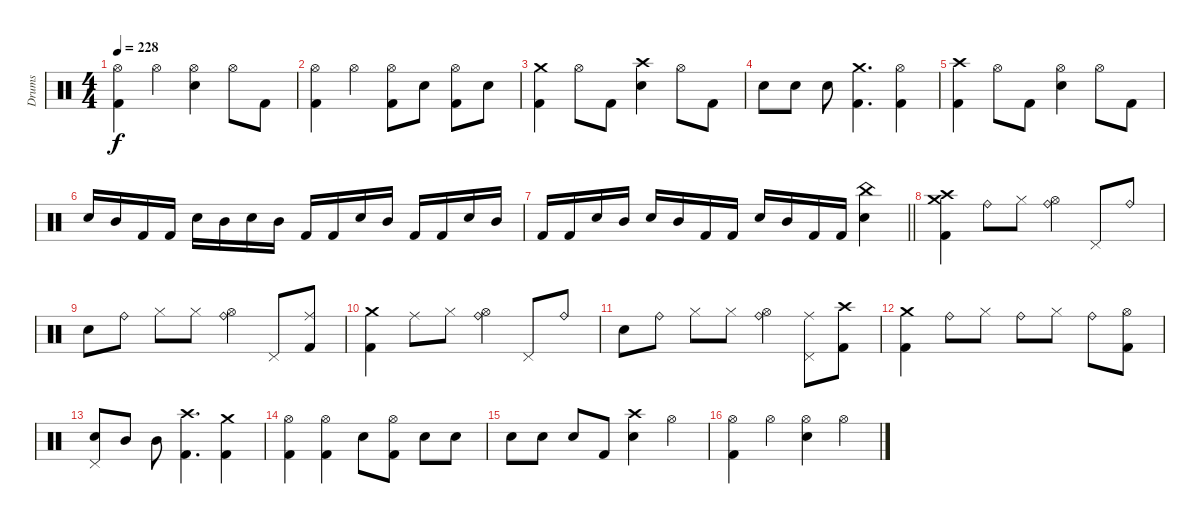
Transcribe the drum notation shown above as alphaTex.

\track ("Drums" "Drums") {instrument percussion}
\staff {score}
\articulation defaults
\ts (4 4)
\tempo 228
\clef neutral
\ks c
("Hi-Hat (open)" "Kick (hit) 2").4{dy f} "Hi-Hat (open)".4 ("Hi-Hat (open)" "Electric Snare (hit)").4 "Hi-Hat (open)".8 "Kick (hit) 2".8 |
("Hi-Hat (open)" "Kick (hit) 2").4 "Hi-Hat (open)".4 ("Hi-Hat (open)" "Kick (hit) 2").8 "Electric Snare (hit)".8 ("Hi-Hat (open)" "Kick (hit) 2").8 "Electric Snare (hit)".8 |
("Crash medium (hit)" "Kick (hit) 2").4 "Hi-Hat (open)".8 "Kick (hit) 2".8 ("Crash high (hit)" "Electric Snare (hit)").4 "Hi-Hat (open)".8 "Kick (hit) 2".8 |
"Electric Snare (hit)".8 "Electric Snare (hit)".8 "Electric Snare (hit)".8 ("Crash medium (hit)" "Kick (hit) 2").4{d} ("Hi-Hat (open)" "Kick (hit) 2").4 |
("Crash high (hit)" "Kick (hit) 2").4 "Hi-Hat (open)".8 "Kick (hit) 2".8 ("Hi-Hat (open)" "Electric Snare (hit)").4 "Hi-Hat (open)".8 "Kick (hit) 2".8 |
"Electric Snare (hit)".16 "Mid Tom (hit)".16 "Kick (hit) 2".16 "Kick (hit) 2".16 "Electric Snare (hit)".16 "Mid Tom (hit)".16 "Electric Snare (hit)".16 "Mid Tom (hit)".16 "Kick (hit) 2".16 "Kick (hit) 2".16 "Electric Snare (hit)".16 "Mid Tom (hit)".16 "Kick (hit) 2".16 "Kick (hit) 2".16 "Electric Snare (hit)".16 "Mid Tom (hit)".16 |
\barLineRight lightlight "Kick (hit) 2".16 "Kick (hit) 2".16 "Electric Snare (hit)".16 "Mid Tom (hit)".16 "Electric Snare (hit)".16 "Mid Tom (hit)".16 "Kick (hit) 2".16 "Kick (hit) 2".16 "Electric Snare (hit)".16 "Mid Tom (hit)".16 "Kick (hit) 2".16 "Kick (hit) 2".16
("China (hit)" "Electric Snare (hit)").4 |
("Crash medium (hit)" "Crash high (hit)" "Kick (hit) 2").4 "Ride (bell)".8 "Hi-Hat (closed)".8 ("Ride (bell)" "Hi-Hat (open)").4 "Pedal Hi-Hat (hit)".8 "Ride (bell)".8 |
"Electric Snare (hit)".8 "Ride (bell)".8 "Hi-Hat (closed)".8 "Hi-Hat (closed)".8 ("Ride (bell)" "Hi-Hat (open)").4 "Pedal Hi-Hat (hit)".8 ("Ride (middle)" "Kick (hit) 2").8 |
("Crash medium (hit)" "Kick (hit) 2").4 "Ride (middle)".8 "Hi-Hat (closed)".8 ("Ride (bell)" "Hi-Hat (open)").4 "Pedal Hi-Hat (hit)".8 "Ride (bell)".8 |
"Electric Snare (hit)".8 "Ride (bell)".8 "Hi-Hat (closed)".8 "Hi-Hat (closed)".8 ("Ride (bell)" "Hi-Hat (open)").4 ("Ride (middle)" "Pedal Hi-Hat (hit)").8 ("Crash high (hit)" "Kick (hit) 2").8 |
("Crash medium (hit)" "Kick (hit) 2").4 "Ride (bell)".8 "Hi-Hat (closed)".8 "Ride (bell)".8 "Hi-Hat (closed)".8 "Ride (bell)".8 ("Hi-Hat (open)" "Kick (hit) 2").8 |
("Pedal Hi-Hat (hit)" "Electric Snare (hit)").8 "Mid Tom (hit)".8 "Mid Tom (hit)".8 ("Crash high (hit)" "Kick (hit) 2").4{d} ("Crash medium (hit)" "Kick (hit) 2").4 |
("Hi-Hat (open)" "Kick (hit) 2").4 ("Hi-Hat (open)" "Kick (hit) 2").4 "Electric Snare (hit)".8 ("Hi-Hat (open)" "Kick (hit) 2").8 "Electric Snare (hit)".8 "Electric Snare (hit)".8 |
"Electric Snare (hit)".8 "Electric Snare (hit)".8 "Electric Snare (hit)".8 "Kick (hit) 2".8 ("Crash high (hit)" "Electric Snare (hit)").4 "Hi-Hat (open)".4 |
("Hi-Hat (open)" "Kick (hit) 2").4 "Hi-Hat (open)".4 ("Hi-Hat (open)" "Electric Snare (hit)").4 "Hi-Hat (open)".4
